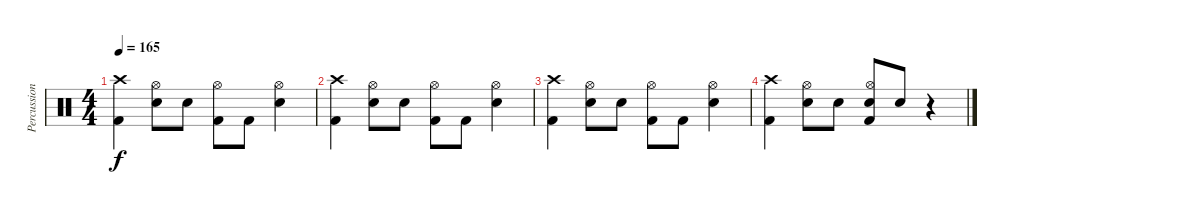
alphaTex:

\track ("Percussion" "Percussion") {instrument percussion}
\staff {score}
\articulation defaults
\ts (4 4)
\tempo 165
\clef neutral
\ks c
("Crash high (hit)" "Kick (hit) 2").4{dy f} ("Hi-Hat (open)" "Snare (hit) 2").8 "Snare (hit) 2".8 ("Hi-Hat (open)" "Kick (hit) 2").8 "Kick (hit) 2".8 ("Hi-Hat (open)" "Snare (hit) 2").4 |
("Crash high (hit)" "Kick (hit) 2").4 ("Hi-Hat (open)" "Snare (hit) 2").8 "Snare (hit) 2".8 ("Hi-Hat (open)" "Kick (hit) 2").8 "Kick (hit) 2".8 ("Hi-Hat (open)" "Snare (hit) 2").4 |
("Crash high (hit)" "Kick (hit) 2").4 ("Hi-Hat (open)" "Snare (hit) 2").8 "Snare (hit) 2".8 ("Hi-Hat (open)" "Kick (hit) 2").8 "Kick (hit) 2".8 ("Hi-Hat (open)" "Snare (hit) 2").4 |
("Crash high (hit)" "Kick (hit) 2").4 ("Hi-Hat (open)" "Snare (hit) 2").8 "Snare (hit) 2".8 ("Hi-Hat (open)" "Snare (hit) 2" "Kick (hit) 2").8 "Snare (hit) 2".8 r.4
